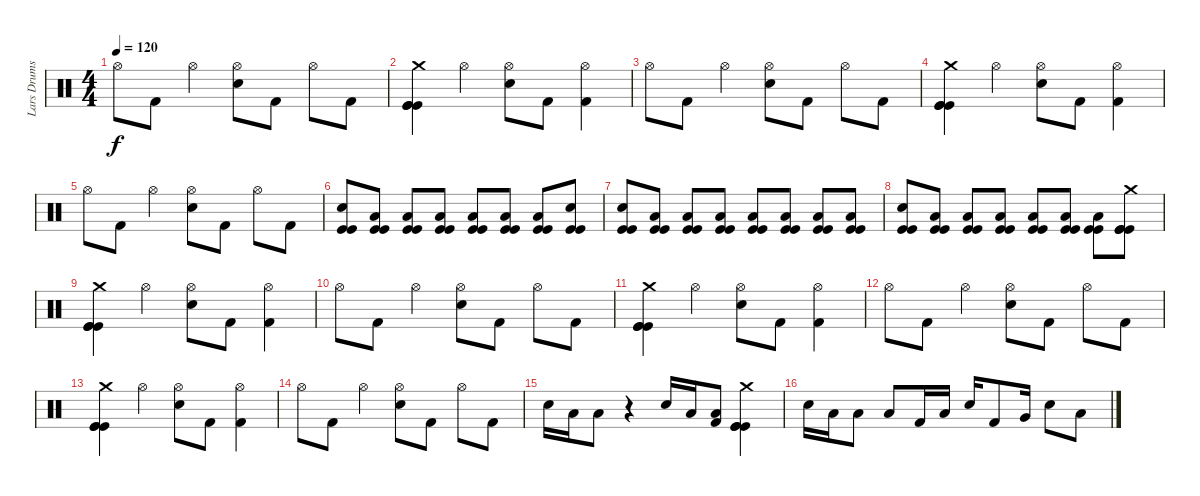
\track ("Lars Drums" "Lars Drums") {instrument percussion}
\staff {score}
\articulation defaults
\ts (4 4)
\tempo 120
\clef neutral
\ks c "Hi-Hat (open)".8{dy f} "Kick (hit) 2".8 "Hi-Hat (open)".4
("Hi-Hat (open)" "Electric Snare (hit)").8 "Kick (hit) 2".8 "Hi-Hat (open)".8 "Kick (hit) 2".8 |
("Kick (hit)" "Kick (hit)" "Kick (hit)" "Crash medium (hit)").4 "Hi-Hat (open)".4 ("Hi-Hat (open)" "Electric Snare (hit)").8 "Kick (hit) 2".8 ("Hi-Hat (open)" "Kick (hit) 2").4 |
"Hi-Hat (open)".8 "Kick (hit) 2".8 "Hi-Hat (open)".4 ("Hi-Hat (open)" "Electric Snare (hit)").8 "Kick (hit) 2".8 "Hi-Hat (open)".8 "Kick (hit) 2".8 |
("Kick (hit)" "Kick (hit)" "Kick (hit)" "Crash medium (hit)").4 "Hi-Hat (open)".4 ("Hi-Hat (open)" "Electric Snare (hit)").8 "Kick (hit) 2".8 ("Hi-Hat (open)" "Kick (hit) 2").4 |
"Hi-Hat (open)".8 "Kick (hit) 2".8 "Hi-Hat (open)".4 ("Hi-Hat (open)" "Electric Snare (hit)").8 "Kick (hit) 2".8 "Hi-Hat (open)".8 "Kick (hit) 2".8 |
("Electric Snare (hit)" "Kick (hit)" "Kick (hit)").8 ("Low Tom (hit)" "Kick (hit)" "Kick (hit)").8 ("Low Tom (hit)" "Kick (hit)" "Kick (hit)").8 ("Low Tom (hit)" "Kick (hit)" "Kick (hit)").8 ("Low Tom (hit)" "Kick (hit)" "Kick (hit)").8 ("Low Tom (hit)" "Kick (hit)" "Kick (hit)").8 ("Low Tom (hit)" "Kick (hit)" "Kick (hit)").8 ("Electric Snare (hit)" "Kick (hit)" "Kick (hit)").8 |
("Electric Snare (hit)" "Kick (hit)" "Kick (hit)").8 ("Low Tom (hit)" "Kick (hit)" "Kick (hit)").8 ("Low Tom (hit)" "Kick (hit)" "Kick (hit)").8 ("Low Tom (hit)" "Kick (hit)" "Kick (hit)").8 ("Low Tom (hit)" "Kick (hit)" "Kick (hit)").8 ("Low Tom (hit)" "Kick (hit)" "Kick (hit)").8 ("Low Tom (hit)" "Kick (hit)" "Kick (hit)").8 ("Low Tom (hit)" "Kick (hit)" "Kick (hit)").8 |
("Electric Snare (hit)" "Kick (hit)" "Kick (hit)").8 ("Low Tom (hit)" "Kick (hit)" "Kick (hit)").8 ("Low Tom (hit)" "Kick (hit)" "Kick (hit)").8 ("Low Tom (hit)" "Kick (hit)" "Kick (hit)").8 ("Low Tom (hit)" "Kick (hit)" "Kick (hit)").8 ("Low Tom (hit)" "Kick (hit)" "Kick (hit)").8 ("Low Tom (hit)" "Kick (hit)" "Kick (hit)").8 ("Kick (hit)" "Kick (hit)" "Kick (hit)" "Crash medium (hit)").8 |
("Kick (hit)" "Kick (hit)" "Kick (hit)" "Crash medium (hit)").4 "Hi-Hat (open)".4 ("Hi-Hat (open)" "Electric Snare (hit)").8 "Kick (hit) 2".8 ("Hi-Hat (open)" "Kick (hit) 2").4 |
"Hi-Hat (open)".8 "Kick (hit) 2".8 "Hi-Hat (open)".4 ("Hi-Hat (open)" "Electric Snare (hit)").8 "Kick (hit) 2".8 "Hi-Hat (open)".8 "Kick (hit) 2".8 |
("Kick (hit)" "Kick (hit)" "Kick (hit)" "Crash medium (hit)").4 "Hi-Hat (open)".4 ("Hi-Hat (open)" "Electric Snare (hit)").8 "Kick (hit) 2".8 ("Hi-Hat (open)" "Kick (hit) 2").4 |
"Hi-Hat (open)".8 "Kick (hit) 2".8 "Hi-Hat (open)".4 ("Hi-Hat (open)" "Electric Snare (hit)").8 "Kick (hit) 2".8 "Hi-Hat (open)".8 "Kick (hit) 2".8 |
("Kick (hit)" "Kick (hit)" "Kick (hit)" "Crash medium (hit)").4 "Hi-Hat (open)".4 ("Hi-Hat (open)" "Electric Snare (hit)").8 "Kick (hit) 2".8 ("Hi-Hat (open)" "Kick (hit) 2").4 |
"Hi-Hat (open)".8 "Kick (hit) 2".8 "Hi-Hat (open)".4 ("Hi-Hat (open)" "Electric Snare (hit)").8 "Kick (hit) 2".8 "Hi-Hat (open)".8 "Kick (hit) 2".8 |
"Electric Snare (hit)".16 "Low Tom (hit)".16 "Low Floor Tom (hit)".8 r.4 "Electric Snare (hit)".16 "Low Tom (hit)".16 ("Low Floor Tom (hit)" "Kick (hit) 2").8 ("Kick (hit)" "Kick (hit)" "Kick (hit)" "Crash medium (hit)").4 |
"Electric Snare (hit)".16 "Low Tom (hit)".16 "Low Floor Tom (hit)".8 "Low Floor Tom (hit)".8 "Kick (hit) 2".16 "Low Floor Tom (hit)".16 "Electric Snare (hit)".16 "Kick (hit) 2".8 "Very Low Tom (hit)".16 "Electric Snare (hit)".8 "Low Tom (hit)".8
